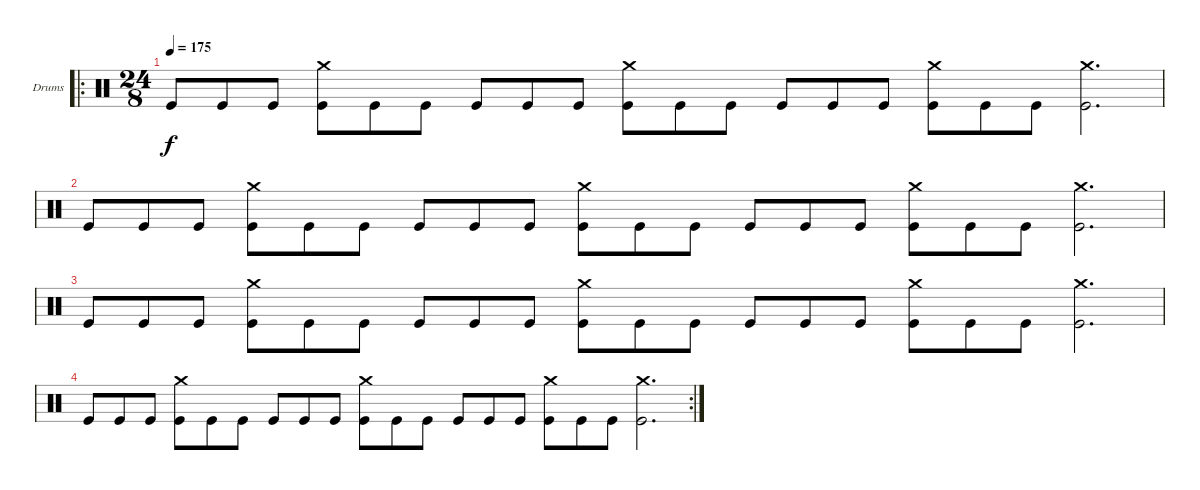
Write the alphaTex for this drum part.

\defaultSystemsLayout 4
\bracketExtendMode groupsimilarinstruments
\firstSystemTrackNameOrientation horizontal
\otherSystemsTrackNameOrientation horizontal
\track ("Сеня(Drumkit)" "Drums") {instrument percussion}
\staff {score}
\articulation defaults
\ro
\ts (24 8)
\tempo 175
\clef neutral
\ks c "Kick (hit)".8{dy f} "Kick (hit)".8 "Kick (hit)".8
("Crash medium (hit)" "Kick (hit)").8 "Kick (hit)".8 "Kick (hit)".8 "Kick (hit)".8 "Kick (hit)".8 "Kick (hit)".8 ("Crash medium (hit)" "Kick (hit)").8 "Kick (hit)".8 "Kick (hit)".8 "Kick (hit)".8 "Kick (hit)".8 "Kick (hit)".8 ("Crash medium (hit)" "Kick (hit)").8 "Kick (hit)".8 "Kick (hit)".8 ("Crash medium (hit)" "Kick (hit)").2{d} |
"Kick (hit)".8 "Kick (hit)".8 "Kick (hit)".8 ("Crash medium (hit)" "Kick (hit)").8 "Kick (hit)".8 "Kick (hit)".8 "Kick (hit)".8 "Kick (hit)".8 "Kick (hit)".8 ("Crash medium (hit)" "Kick (hit)").8 "Kick (hit)".8 "Kick (hit)".8 "Kick (hit)".8 "Kick (hit)".8 "Kick (hit)".8 ("Crash medium (hit)" "Kick (hit)").8 "Kick (hit)".8 "Kick (hit)".8 ("Crash medium (hit)" "Kick (hit)").2{d} |
"Kick (hit)".8 "Kick (hit)".8 "Kick (hit)".8 ("Crash medium (hit)" "Kick (hit)").8 "Kick (hit)".8 "Kick (hit)".8 "Kick (hit)".8 "Kick (hit)".8 "Kick (hit)".8 ("Crash medium (hit)" "Kick (hit)").8 "Kick (hit)".8 "Kick (hit)".8 "Kick (hit)".8 "Kick (hit)".8 "Kick (hit)".8 ("Crash medium (hit)" "Kick (hit)").8 "Kick (hit)".8 "Kick (hit)".8 ("Crash medium (hit)" "Kick (hit)").2{d} |
\rc 2 "Kick (hit)".8 "Kick (hit)".8 "Kick (hit)".8
("Crash medium (hit)" "Kick (hit)").8 "Kick (hit)".8 "Kick (hit)".8 "Kick (hit)".8 "Kick (hit)".8 "Kick (hit)".8 ("Crash medium (hit)" "Kick (hit)").8 "Kick (hit)".8 "Kick (hit)".8 "Kick (hit)".8 "Kick (hit)".8 "Kick (hit)".8 ("Crash medium (hit)" "Kick (hit)").8 "Kick (hit)".8 "Kick (hit)".8 ("Crash medium (hit)" "Kick (hit)").2{d}
